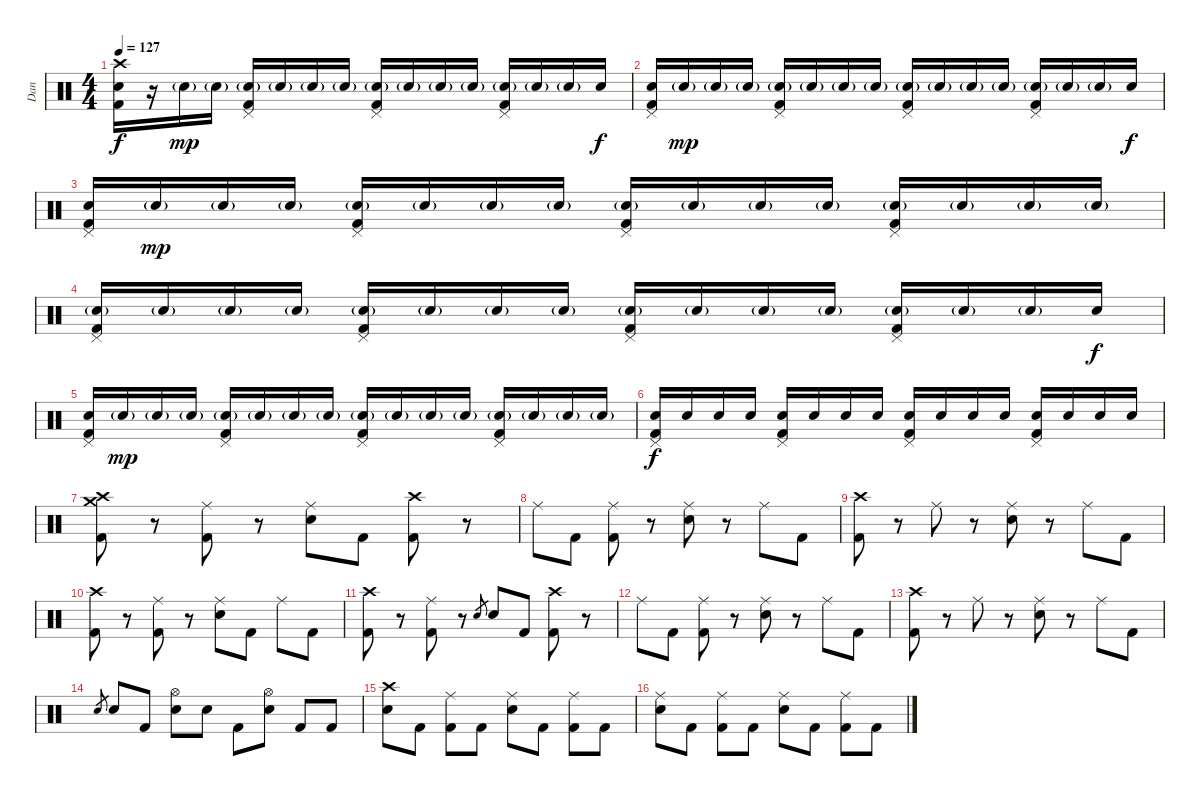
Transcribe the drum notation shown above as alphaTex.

\track ("Dan" "Dan") {instrument percussion}
\staff {score}
\articulation defaults
\ts (4 4)
\tempo 127
\clef neutral
\ks c
("Crash high (hit)" "Electric Snare (hit)" "Kick (hit) 2").16{dy f} r.16 "Electric Snare (hit)"{g}.16{dy mp} "Electric Snare (hit)"{g}.16 ("Pedal Hi-Hat (hit)" "Electric Snare (hit)"{g} "Kick (hit) 2").16 "Electric Snare (hit)"{g}.16 "Electric Snare (hit)"{g}.16 "Electric Snare (hit)"{g}.16 ("Pedal Hi-Hat (hit)" "Electric Snare (hit)"{g} "Kick (hit) 2").16 "Electric Snare (hit)"{g}.16 "Electric Snare (hit)"{g}.16 "Electric Snare (hit)"{g}.16 ("Pedal Hi-Hat (hit)" "Electric Snare (hit)"{g} "Kick (hit) 2").16 "Electric Snare (hit)"{g}.16 "Electric Snare (hit)"{g}.16 "Electric Snare (hit)".16{dy f} |
("Pedal Hi-Hat (hit)" "Electric Snare (hit)" "Kick (hit) 2").16 "Electric Snare (hit)"{g}.16{dy mp} "Electric Snare (hit)"{g}.16 "Electric Snare (hit)"{g}.16 ("Pedal Hi-Hat (hit)" "Electric Snare (hit)"{g} "Kick (hit) 2").16 "Electric Snare (hit)"{g}.16 "Electric Snare (hit)"{g}.16 "Electric Snare (hit)"{g}.16 ("Pedal Hi-Hat (hit)" "Electric Snare (hit)"{g} "Kick (hit) 2").16 "Electric Snare (hit)"{g}.16 "Electric Snare (hit)"{g}.16 "Electric Snare (hit)"{g}.16 ("Pedal Hi-Hat (hit)" "Electric Snare (hit)"{g} "Kick (hit) 2").16 "Electric Snare (hit)"{g}.16 "Electric Snare (hit)"{g}.16 "Electric Snare (hit)".16{dy f} |
("Pedal Hi-Hat (hit)" "Electric Snare (hit)" "Kick (hit) 2").16 "Electric Snare (hit)"{g}.16{dy mp} "Electric Snare (hit)"{g}.16 "Electric Snare (hit)"{g}.16 ("Pedal Hi-Hat (hit)" "Electric Snare (hit)"{g} "Kick (hit) 2").16 "Electric Snare (hit)"{g}.16 "Electric Snare (hit)"{g}.16 "Electric Snare (hit)"{g}.16 ("Pedal Hi-Hat (hit)" "Electric Snare (hit)"{g} "Kick (hit) 2").16 "Electric Snare (hit)"{g}.16 "Electric Snare (hit)"{g}.16 "Electric Snare (hit)"{g}.16 ("Pedal Hi-Hat (hit)" "Electric Snare (hit)"{g} "Kick (hit) 2").16 "Electric Snare (hit)"{g}.16 "Electric Snare (hit)"{g}.16 "Electric Snare (hit)"{g}.16 |
("Pedal Hi-Hat (hit)" "Electric Snare (hit)"{g} "Kick (hit) 2").16 "Electric Snare (hit)"{g}.16 "Electric Snare (hit)"{g}.16 "Electric Snare (hit)"{g}.16 ("Pedal Hi-Hat (hit)" "Electric Snare (hit)"{g} "Kick (hit) 2").16 "Electric Snare (hit)"{g}.16 "Electric Snare (hit)"{g}.16 "Electric Snare (hit)"{g}.16 ("Pedal Hi-Hat (hit)" "Electric Snare (hit)"{g} "Kick (hit) 2").16 "Electric Snare (hit)"{g}.16 "Electric Snare (hit)"{g}.16 "Electric Snare (hit)"{g}.16 ("Pedal Hi-Hat (hit)" "Electric Snare (hit)"{g} "Kick (hit) 2").16 "Electric Snare (hit)"{g}.16 "Electric Snare (hit)"{g}.16 "Electric Snare (hit)".16{dy f} |
("Pedal Hi-Hat (hit)" "Electric Snare (hit)" "Kick (hit) 2").16 "Electric Snare (hit)"{g}.16{dy mp} "Electric Snare (hit)"{g}.16 "Electric Snare (hit)"{g}.16 ("Pedal Hi-Hat (hit)" "Electric Snare (hit)"{g} "Kick (hit) 2").16 "Electric Snare (hit)"{g}.16 "Electric Snare (hit)"{g}.16 "Electric Snare (hit)"{g}.16 ("Pedal Hi-Hat (hit)" "Electric Snare (hit)"{g} "Kick (hit) 2").16 "Electric Snare (hit)"{g}.16 "Electric Snare (hit)"{g}.16 "Electric Snare (hit)"{g}.16 ("Pedal Hi-Hat (hit)" "Electric Snare (hit)"{g} "Kick (hit) 2").16 "Electric Snare (hit)"{g}.16 "Electric Snare (hit)"{g}.16 "Electric Snare (hit)"{g}.16{volume 7} |
("Pedal Hi-Hat (hit)" "Electric Snare (hit)" "Kick (hit) 2").16{dy f volume 13} "Electric Snare (hit)".16 "Electric Snare (hit)".16 "Electric Snare (hit)".16 ("Pedal Hi-Hat (hit)" "Electric Snare (hit)" "Kick (hit) 2").16 "Electric Snare (hit)".16 "Electric Snare (hit)".16 "Electric Snare (hit)".16 ("Pedal Hi-Hat (hit)" "Electric Snare (hit)" "Kick (hit) 2").16 "Electric Snare (hit)".16 "Electric Snare (hit)".16 "Electric Snare (hit)".16 ("Pedal Hi-Hat (hit)" "Electric Snare (hit)" "Kick (hit) 2").16 "Electric Snare (hit)".16 "Electric Snare (hit)".16 "Electric Snare (hit)".16 |
("Crash high (hit)" "Crash medium (hit)" "Kick (hit) 2").8 r.8 ("Ride (middle)" "Kick (hit) 2").8 r.8 ("Ride (middle)" "Electric Snare (hit)").8 "Kick (hit) 2".8 ("Crash high (hit)" "Kick (hit) 2").8 r.8 |
"Ride (middle)".8 "Kick (hit) 2".8 ("Ride (middle)" "Kick (hit) 2").8 r.8 ("Ride (middle)" "Electric Snare (hit)").8 r.8 "Ride (middle)".8 "Kick (hit) 2".8 |
("Crash high (hit)" "Kick (hit) 2").8 r.8 "Ride (middle)".8 r.8 ("Ride (middle)" "Electric Snare (hit)").8 r.8 "Ride (middle)".8 "Kick (hit) 2".8 |
("Crash high (hit)" "Kick (hit) 2").8 r.8 ("Ride (middle)" "Kick (hit) 2").8 r.8 ("Ride (middle)" "Electric Snare (hit)").8 "Kick (hit) 2".8 "Ride (middle)".8 "Kick (hit) 2".8 |
("Crash high (hit)" "Kick (hit) 2").8 r.8 ("Ride (middle)" "Kick (hit) 2").8 r.8 "Electric Snare (hit)".8{gr} "Electric Snare (hit)".8 "Kick (hit) 2".8 ("Crash high (hit)" "Kick (hit) 2").8 r.8 |
"Ride (middle)".8 "Kick (hit) 2".8 ("Ride (middle)" "Kick (hit) 2").8 r.8 ("Ride (middle)" "Electric Snare (hit)").8 r.8 "Ride (middle)".8 "Kick (hit) 2".8 |
("Crash high (hit)" "Kick (hit) 2").8 r.8 "Ride (middle)".8 r.8 ("Ride (middle)" "Electric Snare (hit)").8 r.8 "Ride (middle)".8 "Kick (hit) 2".8 |
"Electric Snare (hit)".8{gr} "Electric Snare (hit)".8 "Kick (hit) 2".8 ("Hi-Hat (open)" "Electric Snare (hit)").8 "Electric Snare (hit)".8 "Kick (hit) 2".8 ("Hi-Hat (open)" "Electric Snare (hit)").8 "Kick (hit) 2".8 "Kick (hit) 2".8 |
("Crash high (hit)" "Electric Snare (hit)").8 "Kick (hit) 2".8 ("Ride (middle)" "Kick (hit) 2").8 "Kick (hit) 2".8 ("Ride (middle)" "Electric Snare (hit)").8 "Kick (hit) 2".8 ("Ride (middle)" "Kick (hit) 2").8 "Kick (hit) 2".8 |
("Ride (middle)" "Electric Snare (hit)").8 "Kick (hit) 2".8 ("Ride (middle)" "Kick (hit) 2").8 "Kick (hit) 2".8 ("Ride (middle)" "Electric Snare (hit)").8 "Kick (hit) 2".8 ("Ride (middle)" "Kick (hit) 2").8 "Kick (hit) 2".8
